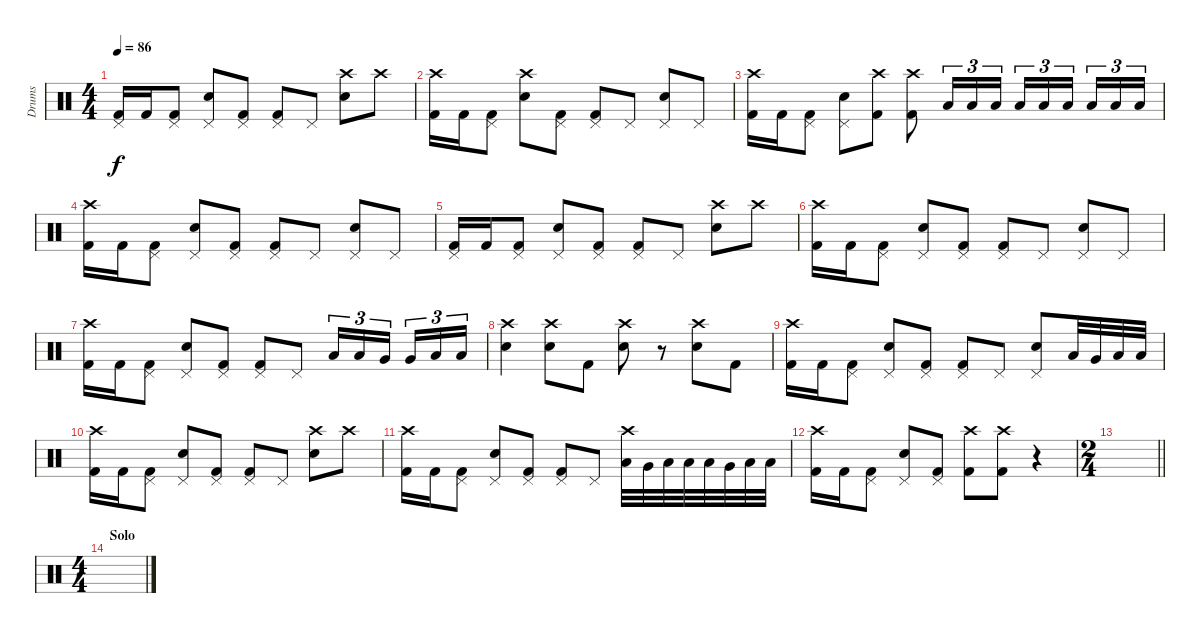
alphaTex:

\track ("Drums" "Drums") {instrument percussion}
\staff {score}
\articulation defaults
\ts (4 4)
\tempo 86
\clef neutral
\ks c
("Pedal Hi-Hat (hit)" "Kick (hit) 2").16{dy f} "Kick (hit) 2".16 ("Pedal Hi-Hat (hit)" "Kick (hit) 2").8 ("Pedal Hi-Hat (hit)" "Snare (hit) 2").8 ("Pedal Hi-Hat (hit)" "Kick (hit) 2").8 ("Pedal Hi-Hat (hit)" "Kick (hit) 2").8 "Pedal Hi-Hat (hit)".8 ("Crash high (hit)" "Snare (hit) 2").8 "Crash high (hit)".8 |
("Crash high (hit)" "Kick (hit) 2").16 "Kick (hit) 2".16 ("Pedal Hi-Hat (hit)" "Kick (hit) 2").8 ("Crash high (hit)" "Snare (hit) 2").8 ("Pedal Hi-Hat (hit)" "Kick (hit) 2").8 ("Pedal Hi-Hat (hit)" "Kick (hit) 2").8 "Pedal Hi-Hat (hit)".8 ("Pedal Hi-Hat (hit)" "Snare (hit) 2").8 "Pedal Hi-Hat (hit)".8 |
("Crash high (hit)" "Kick (hit) 2").16 "Kick (hit) 2".16 ("Pedal Hi-Hat (hit)" "Kick (hit) 2").8 ("Pedal Hi-Hat (hit)" "Snare (hit) 2").8 ("Crash high (hit)" "Kick (hit) 2").8 ("Crash high (hit)" "Kick (hit) 2").8 "Low Tom (hit)".16{tu (3 2)} "Low Tom (hit)".16{tu (3 2)} "Low Tom (hit)".16{tu (3 2)} "Low Tom (hit)".16{tu (3 2)} "Low Tom (hit)".16{tu (3 2)} "Low Tom (hit)".16{tu (3 2) beam splitsecondary} "Low Tom (hit)".16{tu (3 2)} "Low Tom (hit)".16{tu (3 2)} "Low Tom (hit)".16{tu (3 2)} |
("Crash high (hit)" "Kick (hit) 2").16 "Kick (hit) 2".16 ("Pedal Hi-Hat (hit)" "Kick (hit) 2").8 ("Pedal Hi-Hat (hit)" "Snare (hit) 2").8 ("Pedal Hi-Hat (hit)" "Kick (hit) 2").8 ("Pedal Hi-Hat (hit)" "Kick (hit) 2").8 "Pedal Hi-Hat (hit)".8 ("Pedal Hi-Hat (hit)" "Snare (hit) 2").8 "Pedal Hi-Hat (hit)".8 |
("Pedal Hi-Hat (hit)" "Kick (hit) 2").16 "Kick (hit) 2".16 ("Pedal Hi-Hat (hit)" "Kick (hit) 2").8 ("Pedal Hi-Hat (hit)" "Snare (hit) 2").8 ("Pedal Hi-Hat (hit)" "Kick (hit) 2").8 ("Pedal Hi-Hat (hit)" "Kick (hit) 2").8 "Pedal Hi-Hat (hit)".8 ("Crash high (hit)" "Snare (hit) 2").8 "Crash high (hit)".8 |
("Crash high (hit)" "Kick (hit) 2").16 "Kick (hit) 2".16 ("Pedal Hi-Hat (hit)" "Kick (hit) 2").8 ("Pedal Hi-Hat (hit)" "Snare (hit) 2").8 ("Pedal Hi-Hat (hit)" "Kick (hit) 2").8 ("Pedal Hi-Hat (hit)" "Kick (hit) 2").8 "Pedal Hi-Hat (hit)".8 ("Pedal Hi-Hat (hit)" "Snare (hit) 2").8 "Pedal Hi-Hat (hit)".8 |
("Crash high (hit)" "Kick (hit) 2").16 "Kick (hit) 2".16 ("Pedal Hi-Hat (hit)" "Kick (hit) 2").8 ("Pedal Hi-Hat (hit)" "Snare (hit) 2").8 ("Pedal Hi-Hat (hit)" "Kick (hit) 2").8 ("Pedal Hi-Hat (hit)" "Kick (hit) 2").8 "Pedal Hi-Hat (hit)".8 "Low Tom (hit)".16{tu (3 2)} "Low Tom (hit)".16{tu (3 2)} "Very Low Tom (hit)".16{tu (3 2) beam splitsecondary} "Very Low Tom (hit)".16{tu (3 2)} "Low Floor Tom (hit)".16{tu (3 2)} "Low Floor Tom (hit)".16{tu (3 2)} |
("Crash high (hit)" "Snare (hit) 2").4 ("Crash high (hit)" "Snare (hit) 2").8 "Kick (hit) 2".8 ("Crash high (hit)" "Snare (hit) 2").8 r.8 ("Crash high (hit)" "Snare (hit) 2").8 "Kick (hit) 2".8 |
("Crash high (hit)" "Kick (hit) 2").16 "Kick (hit) 2".16 ("Pedal Hi-Hat (hit)" "Kick (hit) 2").8 ("Pedal Hi-Hat (hit)" "Snare (hit) 2").8 ("Pedal Hi-Hat (hit)" "Kick (hit) 2").8 ("Pedal Hi-Hat (hit)" "Kick (hit) 2").8 "Pedal Hi-Hat (hit)".8 ("Pedal Hi-Hat (hit)" "Snare (hit) 2").8 "Low Tom (hit)".32 "Very Low Tom (hit)".32 "Low Floor Tom (hit)".32 "Low Floor Tom (hit)".32 |
("Crash high (hit)" "Kick (hit) 2").16 "Kick (hit) 2".16 ("Pedal Hi-Hat (hit)" "Kick (hit) 2").8 ("Pedal Hi-Hat (hit)" "Snare (hit) 2").8 ("Pedal Hi-Hat (hit)" "Kick (hit) 2").8 ("Pedal Hi-Hat (hit)" "Kick (hit) 2").8 "Pedal Hi-Hat (hit)".8 ("Crash high (hit)" "Snare (hit) 2").8 "Crash high (hit)".8 |
("Crash high (hit)" "Kick (hit) 2").16 "Kick (hit) 2".16 ("Pedal Hi-Hat (hit)" "Kick (hit) 2").8 ("Pedal Hi-Hat (hit)" "Snare (hit) 2").8 ("Pedal Hi-Hat (hit)" "Kick (hit) 2").8 ("Pedal Hi-Hat (hit)" "Kick (hit) 2").8 "Pedal Hi-Hat (hit)".8 ("Crash high (hit)" "Low Tom (hit)").32 "Very Low Tom (hit)".32 "Low Floor Tom (hit)".32 "Low Floor Tom (hit)".32 "Low Tom (hit)".32 "Very Low Tom (hit)".32 "Low Floor Tom (hit)".32 "Low Floor Tom (hit)".32 |
("Crash high (hit)" "Kick (hit) 2").16 "Kick (hit) 2".16 ("Pedal Hi-Hat (hit)" "Kick (hit) 2").8 ("Pedal Hi-Hat (hit)" "Snare (hit) 2").8 ("Pedal Hi-Hat (hit)" "Kick (hit) 2").8 ("Crash high (hit)" "Kick (hit) 2").8 ("Crash high (hit)" "Kick (hit) 2").8 r.4 |
\ts (2 4)
\barLineRight lightlight
|
\ts (4 4)
\section ("" "Solo")
